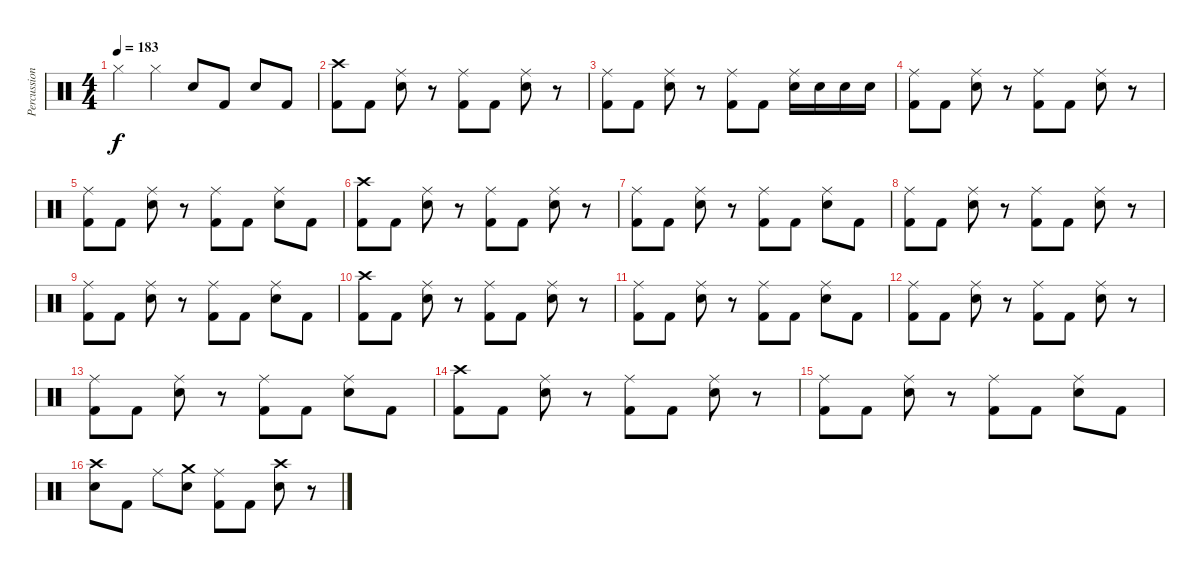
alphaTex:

\track ("Percussion" "Percussion") {instrument percussion}
\staff {score}
\articulation defaults
\ts (4 4)
\tempo 183
\clef neutral
\ks c "Hi-Hat (closed)".4{dy f} "Hi-Hat (closed)".4 "Electric Snare (hit)".8 "Kick (hit) 2".8 "Electric Snare (hit)".8 "Kick (hit) 2".8
|
("Crash high (hit)" "Kick (hit) 2").8 "Kick (hit) 2".8 ("Ride (middle)" "Electric Snare (hit)").8 r.8 ("Ride (middle)" "Kick (hit) 2").8 "Kick (hit) 2".8 ("Ride (middle)" "Electric Snare (hit)").8 r.8 |
("Ride (middle)" "Kick (hit) 2").8 "Kick (hit) 2".8 ("Ride (middle)" "Electric Snare (hit)").8 r.8 ("Ride (middle)" "Kick (hit) 2").8 "Kick (hit) 2".8 ("Ride (middle)" "Electric Snare (hit)").16 "Electric Snare (hit)".16 "Electric Snare (hit)".16 "Electric Snare (hit)".16 |
("Ride (middle)" "Kick (hit) 2").8 "Kick (hit) 2".8 ("Ride (middle)" "Electric Snare (hit)").8 r.8 ("Ride (middle)" "Kick (hit) 2").8 "Kick (hit) 2".8 ("Ride (middle)" "Electric Snare (hit)").8 r.8 |
("Ride (middle)" "Kick (hit) 2").8 "Kick (hit) 2".8 ("Ride (middle)" "Electric Snare (hit)").8 r.8 ("Ride (middle)" "Kick (hit) 2").8 "Kick (hit) 2".8 ("Ride (middle)" "Electric Snare (hit)").8 "Kick (hit) 2".8 |
("Crash high (hit)" "Kick (hit) 2").8 "Kick (hit) 2".8 ("Ride (middle)" "Electric Snare (hit)").8 r.8 ("Ride (middle)" "Kick (hit) 2").8 "Kick (hit) 2".8 ("Ride (middle)" "Electric Snare (hit)").8 r.8 |
("Ride (middle)" "Kick (hit) 2").8 "Kick (hit) 2".8 ("Ride (middle)" "Electric Snare (hit)").8 r.8 ("Ride (middle)" "Kick (hit) 2").8 "Kick (hit) 2".8 ("Ride (middle)" "Electric Snare (hit)").8 "Kick (hit) 2".8 |
("Ride (middle)" "Kick (hit) 2").8 "Kick (hit) 2".8 ("Ride (middle)" "Electric Snare (hit)").8 r.8 ("Ride (middle)" "Kick (hit) 2").8 "Kick (hit) 2".8 ("Ride (middle)" "Electric Snare (hit)").8 r.8 |
("Ride (middle)" "Kick (hit) 2").8 "Kick (hit) 2".8 ("Ride (middle)" "Electric Snare (hit)").8 r.8 ("Ride (middle)" "Kick (hit) 2").8 "Kick (hit) 2".8 ("Ride (middle)" "Electric Snare (hit)").8 "Kick (hit) 2".8 |
("Crash high (hit)" "Kick (hit) 2").8 "Kick (hit) 2".8 ("Ride (middle)" "Electric Snare (hit)").8 r.8 ("Ride (middle)" "Kick (hit) 2").8 "Kick (hit) 2".8 ("Ride (middle)" "Electric Snare (hit)").8 r.8 |
("Ride (middle)" "Kick (hit) 2").8 "Kick (hit) 2".8 ("Ride (middle)" "Electric Snare (hit)").8 r.8 ("Ride (middle)" "Kick (hit) 2").8 "Kick (hit) 2".8 ("Ride (middle)" "Electric Snare (hit)").8 "Kick (hit) 2".8 |
("Ride (middle)" "Kick (hit) 2").8 "Kick (hit) 2".8 ("Ride (middle)" "Electric Snare (hit)").8 r.8 ("Ride (middle)" "Kick (hit) 2").8 "Kick (hit) 2".8 ("Ride (middle)" "Electric Snare (hit)").8 r.8 |
("Ride (middle)" "Kick (hit) 2").8 "Kick (hit) 2".8 ("Ride (middle)" "Electric Snare (hit)").8 r.8 ("Ride (middle)" "Kick (hit) 2").8 "Kick (hit) 2".8 ("Ride (middle)" "Electric Snare (hit)").8 "Kick (hit) 2".8 |
("Crash high (hit)" "Kick (hit) 2").8 "Kick (hit) 2".8 ("Ride (middle)" "Electric Snare (hit)").8 r.8 ("Ride (middle)" "Kick (hit) 2").8 "Kick (hit) 2".8 ("Ride (middle)" "Electric Snare (hit)").8 r.8 |
("Ride (middle)" "Kick (hit) 2").8 "Kick (hit) 2".8 ("Ride (middle)" "Electric Snare (hit)").8 r.8 ("Ride (middle)" "Kick (hit) 2").8 "Kick (hit) 2".8 ("Ride (middle)" "Electric Snare (hit)").8 "Kick (hit) 2".8 |
("Crash high (hit)" "Electric Snare (hit)").8 "Kick (hit) 2".8 "Ride (middle)".8 ("Crash medium (hit)" "Electric Snare (hit)").8 ("Ride (middle)" "Kick (hit) 2").8 "Kick (hit) 2".8 ("Crash high (hit)" "Electric Snare (hit)").8 r.8
